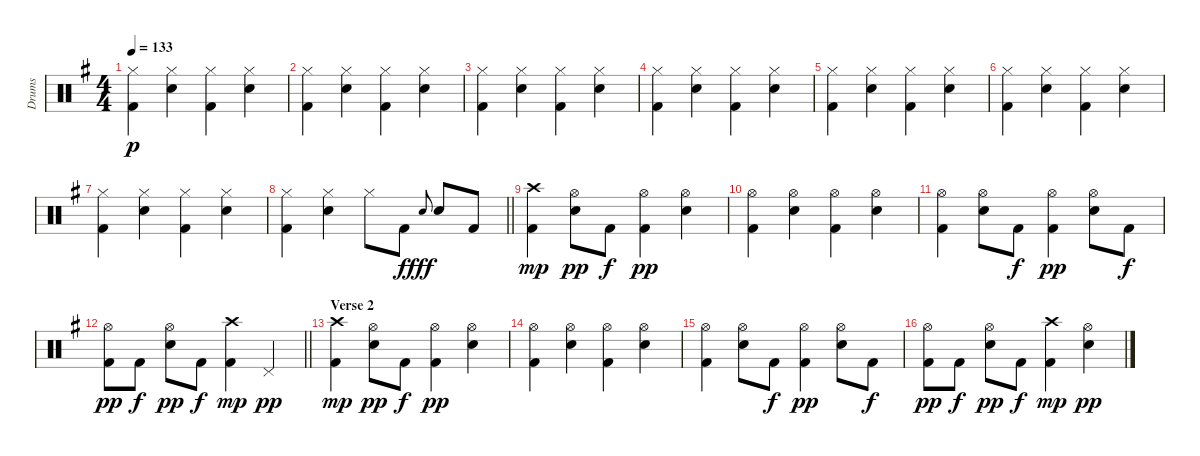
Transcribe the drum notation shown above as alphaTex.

\track ("Drums" "Drums") {instrument percussion}
\staff {score}
\articulation defaults
\ts (4 4)
\tempo 133
\clef neutral
\ks g
("Hi-Hat (closed)" "Kick (hit) 2").4{dy p} ("Hi-Hat (closed)" "Electric Snare (hit)").4 ("Hi-Hat (closed)" "Kick (hit) 2").4 ("Hi-Hat (closed)" "Electric Snare (hit)").4 |
("Hi-Hat (closed)" "Kick (hit) 2").4 ("Hi-Hat (closed)" "Electric Snare (hit)").4 ("Hi-Hat (closed)" "Kick (hit) 2").4 ("Hi-Hat (closed)" "Electric Snare (hit)").4 |
("Hi-Hat (closed)" "Kick (hit) 2").4 ("Hi-Hat (closed)" "Electric Snare (hit)").4 ("Hi-Hat (closed)" "Kick (hit) 2").4 ("Hi-Hat (closed)" "Electric Snare (hit)").4 |
("Hi-Hat (closed)" "Kick (hit) 2").4 ("Hi-Hat (closed)" "Electric Snare (hit)").4 ("Hi-Hat (closed)" "Kick (hit) 2").4 ("Hi-Hat (closed)" "Electric Snare (hit)").4 |
("Hi-Hat (closed)" "Kick (hit) 2").4 ("Hi-Hat (closed)" "Electric Snare (hit)").4 ("Hi-Hat (closed)" "Kick (hit) 2").4 ("Hi-Hat (closed)" "Electric Snare (hit)").4 |
("Hi-Hat (closed)" "Kick (hit) 2").4 ("Hi-Hat (closed)" "Electric Snare (hit)").4 ("Hi-Hat (closed)" "Kick (hit) 2").4 ("Hi-Hat (closed)" "Electric Snare (hit)").4 |
("Hi-Hat (closed)" "Kick (hit) 2").4 ("Hi-Hat (closed)" "Electric Snare (hit)").4 ("Hi-Hat (closed)" "Kick (hit) 2").4 ("Hi-Hat (closed)" "Electric Snare (hit)").4 |
\barLineRight lightlight
("Hi-Hat (closed)" "Kick (hit) 2").4 ("Hi-Hat (closed)" "Electric Snare (hit)").4 "Hi-Hat (closed)".8 "Kick (hit) 2".8{dy f} "Electric Snare (hit)".8{gr onbeat dy fff} "Electric Snare (hit)".8 "Kick (hit) 2".8 |
("Crash high (hit)" "Kick (hit) 2").4{dy mp} ("Electric Snare (hit)" "Hi-Hat (open)").8{dy pp} "Kick (hit) 2".8{dy f} ("Kick (hit) 2" "Hi-Hat (open)").4{dy pp} ("Electric Snare (hit)" "Hi-Hat (open)").4 |
("Kick (hit) 2" "Hi-Hat (open)").4 ("Electric Snare (hit)" "Hi-Hat (open)").4 ("Kick (hit) 2" "Hi-Hat (open)").4 ("Electric Snare (hit)" "Hi-Hat (open)").4 |
("Kick (hit) 2" "Hi-Hat (open)").4 ("Electric Snare (hit)" "Hi-Hat (open)").8 "Kick (hit) 2".8{dy f} ("Kick (hit) 2" "Hi-Hat (open)").4{dy pp} ("Electric Snare (hit)" "Hi-Hat (open)").8 "Kick (hit) 2".8{dy f} |
\barLineRight lightlight
("Kick (hit) 2" "Hi-Hat (open)").8{dy pp} "Kick (hit) 2".8{dy f} ("Electric Snare (hit)" "Hi-Hat (open)").8{dy pp} "Kick (hit) 2".8{dy f} ("Kick (hit) 2" "Crash high (hit)").4{dy mp} "Pedal Hi-Hat (hit)".4{dy pp} |
\section ("" "Verse 2")
("Crash high (hit)" "Kick (hit) 2").4{dy mp} ("Electric Snare (hit)" "Hi-Hat (open)").8{dy pp} "Kick (hit) 2".8{dy f} ("Kick (hit) 2" "Hi-Hat (open)").4{dy pp} ("Electric Snare (hit)" "Hi-Hat (open)").4 |
("Kick (hit) 2" "Hi-Hat (open)").4 ("Electric Snare (hit)" "Hi-Hat (open)").4 ("Kick (hit) 2" "Hi-Hat (open)").4 ("Electric Snare (hit)" "Hi-Hat (open)").4 |
("Kick (hit) 2" "Hi-Hat (open)").4 ("Electric Snare (hit)" "Hi-Hat (open)").8 "Kick (hit) 2".8{dy f} ("Kick (hit) 2" "Hi-Hat (open)").4{dy pp} ("Electric Snare (hit)" "Hi-Hat (open)").8 "Kick (hit) 2".8{dy f} |
("Kick (hit) 2" "Hi-Hat (open)").8{dy pp} "Kick (hit) 2".8{dy f} ("Electric Snare (hit)" "Hi-Hat (open)").8{dy pp} "Kick (hit) 2".8{dy f} ("Kick (hit) 2" "Crash high (hit)").4{dy mp} ("Electric Snare (hit)" "Hi-Hat (open)").4{dy pp}
